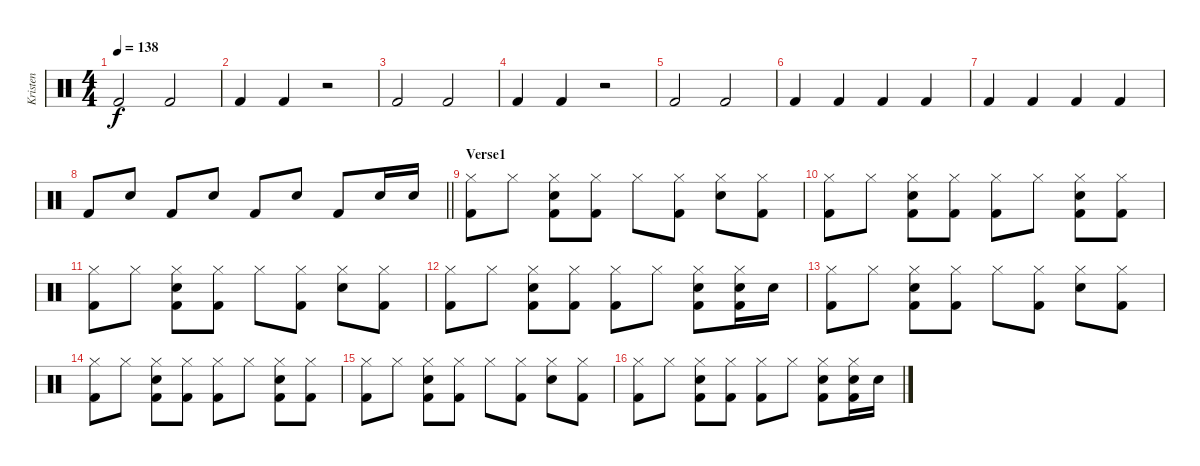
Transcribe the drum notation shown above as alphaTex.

\track ("Kristen" "Kristen") {instrument percussion}
\staff {score}
\articulation defaults
\ts (4 4)
\tempo 138
\clef neutral
\ks c "Kick (hit) 2".2{dy f} "Kick (hit) 2".2
|
"Kick (hit) 2".4 "Kick (hit) 2".4 r.2 |
"Kick (hit) 2".2 "Kick (hit) 2".2 |
"Kick (hit) 2".4 "Kick (hit) 2".4 r.2 |
"Kick (hit) 2".2 "Kick (hit) 2".2 |
"Kick (hit) 2".4 "Kick (hit) 2".4 "Kick (hit) 2".4 "Kick (hit) 2".4 |
"Kick (hit) 2".4 "Kick (hit) 2".4 "Kick (hit) 2".4 "Kick (hit) 2".4 |
\barLineRight lightlight "Kick (hit) 2".8 "Snare (hit) 2".8 "Kick (hit) 2".8 "Snare (hit) 2".8 "Kick (hit) 2".8 "Snare (hit) 2".8 "Kick (hit) 2".8 "Snare (hit) 2".16 "Snare (hit) 2".16
|
\section ("" "Verse1")
("Hi-Hat (closed)" "Kick (hit) 2").8 "Hi-Hat (closed)".8 ("Hi-Hat (closed)" "Snare (hit) 2" "Kick (hit) 2").8 ("Hi-Hat (closed)" "Kick (hit) 2").8 "Hi-Hat (closed)".8 ("Hi-Hat (closed)" "Kick (hit) 2").8 ("Hi-Hat (closed)" "Snare (hit) 2").8 ("Hi-Hat (closed)" "Kick (hit) 2").8 |
("Hi-Hat (closed)" "Kick (hit) 2").8 "Hi-Hat (closed)".8 ("Hi-Hat (closed)" "Snare (hit) 2" "Kick (hit) 2").8 ("Hi-Hat (closed)" "Kick (hit) 2").8 ("Hi-Hat (closed)" "Kick (hit) 2").8 "Hi-Hat (closed)".8 ("Hi-Hat (closed)" "Snare (hit) 2" "Kick (hit) 2").8 ("Hi-Hat (closed)" "Kick (hit) 2").8 |
("Hi-Hat (closed)" "Kick (hit) 2").8 "Hi-Hat (closed)".8 ("Hi-Hat (closed)" "Snare (hit) 2" "Kick (hit) 2").8 ("Hi-Hat (closed)" "Kick (hit) 2").8 "Hi-Hat (closed)".8 ("Hi-Hat (closed)" "Kick (hit) 2").8 ("Hi-Hat (closed)" "Snare (hit) 2").8 ("Hi-Hat (closed)" "Kick (hit) 2").8 |
("Hi-Hat (closed)" "Kick (hit) 2").8 "Hi-Hat (closed)".8 ("Hi-Hat (closed)" "Snare (hit) 2" "Kick (hit) 2").8 ("Hi-Hat (closed)" "Kick (hit) 2").8 ("Hi-Hat (closed)" "Kick (hit) 2").8 "Hi-Hat (closed)".8 ("Hi-Hat (closed)" "Snare (hit) 2" "Kick (hit) 2").8 ("Hi-Hat (closed)" "Snare (hit) 2" "Kick (hit) 2").16 "Snare (hit) 2".16 |
("Hi-Hat (closed)" "Kick (hit) 2").8 "Hi-Hat (closed)".8 ("Hi-Hat (closed)" "Snare (hit) 2" "Kick (hit) 2").8 ("Hi-Hat (closed)" "Kick (hit) 2").8 "Hi-Hat (closed)".8 ("Hi-Hat (closed)" "Kick (hit) 2").8 ("Hi-Hat (closed)" "Snare (hit) 2").8 ("Hi-Hat (closed)" "Kick (hit) 2").8 |
("Hi-Hat (closed)" "Kick (hit) 2").8 "Hi-Hat (closed)".8 ("Hi-Hat (closed)" "Snare (hit) 2" "Kick (hit) 2").8 ("Hi-Hat (closed)" "Kick (hit) 2").8 ("Hi-Hat (closed)" "Kick (hit) 2").8 "Hi-Hat (closed)".8 ("Hi-Hat (closed)" "Snare (hit) 2" "Kick (hit) 2").8 ("Hi-Hat (closed)" "Kick (hit) 2").8 |
("Hi-Hat (closed)" "Kick (hit) 2").8 "Hi-Hat (closed)".8 ("Hi-Hat (closed)" "Snare (hit) 2" "Kick (hit) 2").8 ("Hi-Hat (closed)" "Kick (hit) 2").8 "Hi-Hat (closed)".8 ("Hi-Hat (closed)" "Kick (hit) 2").8 ("Hi-Hat (closed)" "Snare (hit) 2").8 ("Hi-Hat (closed)" "Kick (hit) 2").8 |
("Hi-Hat (closed)" "Kick (hit) 2").8 "Hi-Hat (closed)".8 ("Hi-Hat (closed)" "Snare (hit) 2" "Kick (hit) 2").8 ("Hi-Hat (closed)" "Kick (hit) 2").8 ("Hi-Hat (closed)" "Kick (hit) 2").8 "Hi-Hat (closed)".8 ("Hi-Hat (closed)" "Snare (hit) 2" "Kick (hit) 2").8 ("Hi-Hat (closed)" "Snare (hit) 2" "Kick (hit) 2").16 "Snare (hit) 2".16
